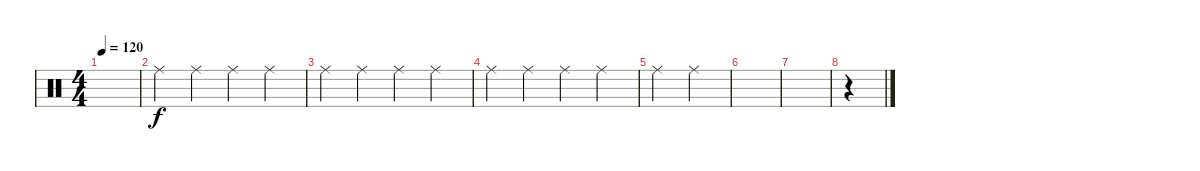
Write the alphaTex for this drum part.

\track "" {instrument percussion}
\staff {score}
\articulation defaults
\ts (4 4)
\tempo 120
\clef neutral
\ks c
|
"Ride (middle)".4 "Ride (middle)".4 "Ride (middle)".4 "Ride (middle)".4 |
"Ride (middle)".4 "Ride (middle)".4 "Ride (middle)".4 "Ride (middle)".4 |
"Ride (middle)".4 "Ride (middle)".4 "Ride (middle)".4 "Ride (middle)".4 |
"Ride (middle)".4 "Ride (middle)".4 |
|
|
r.4
